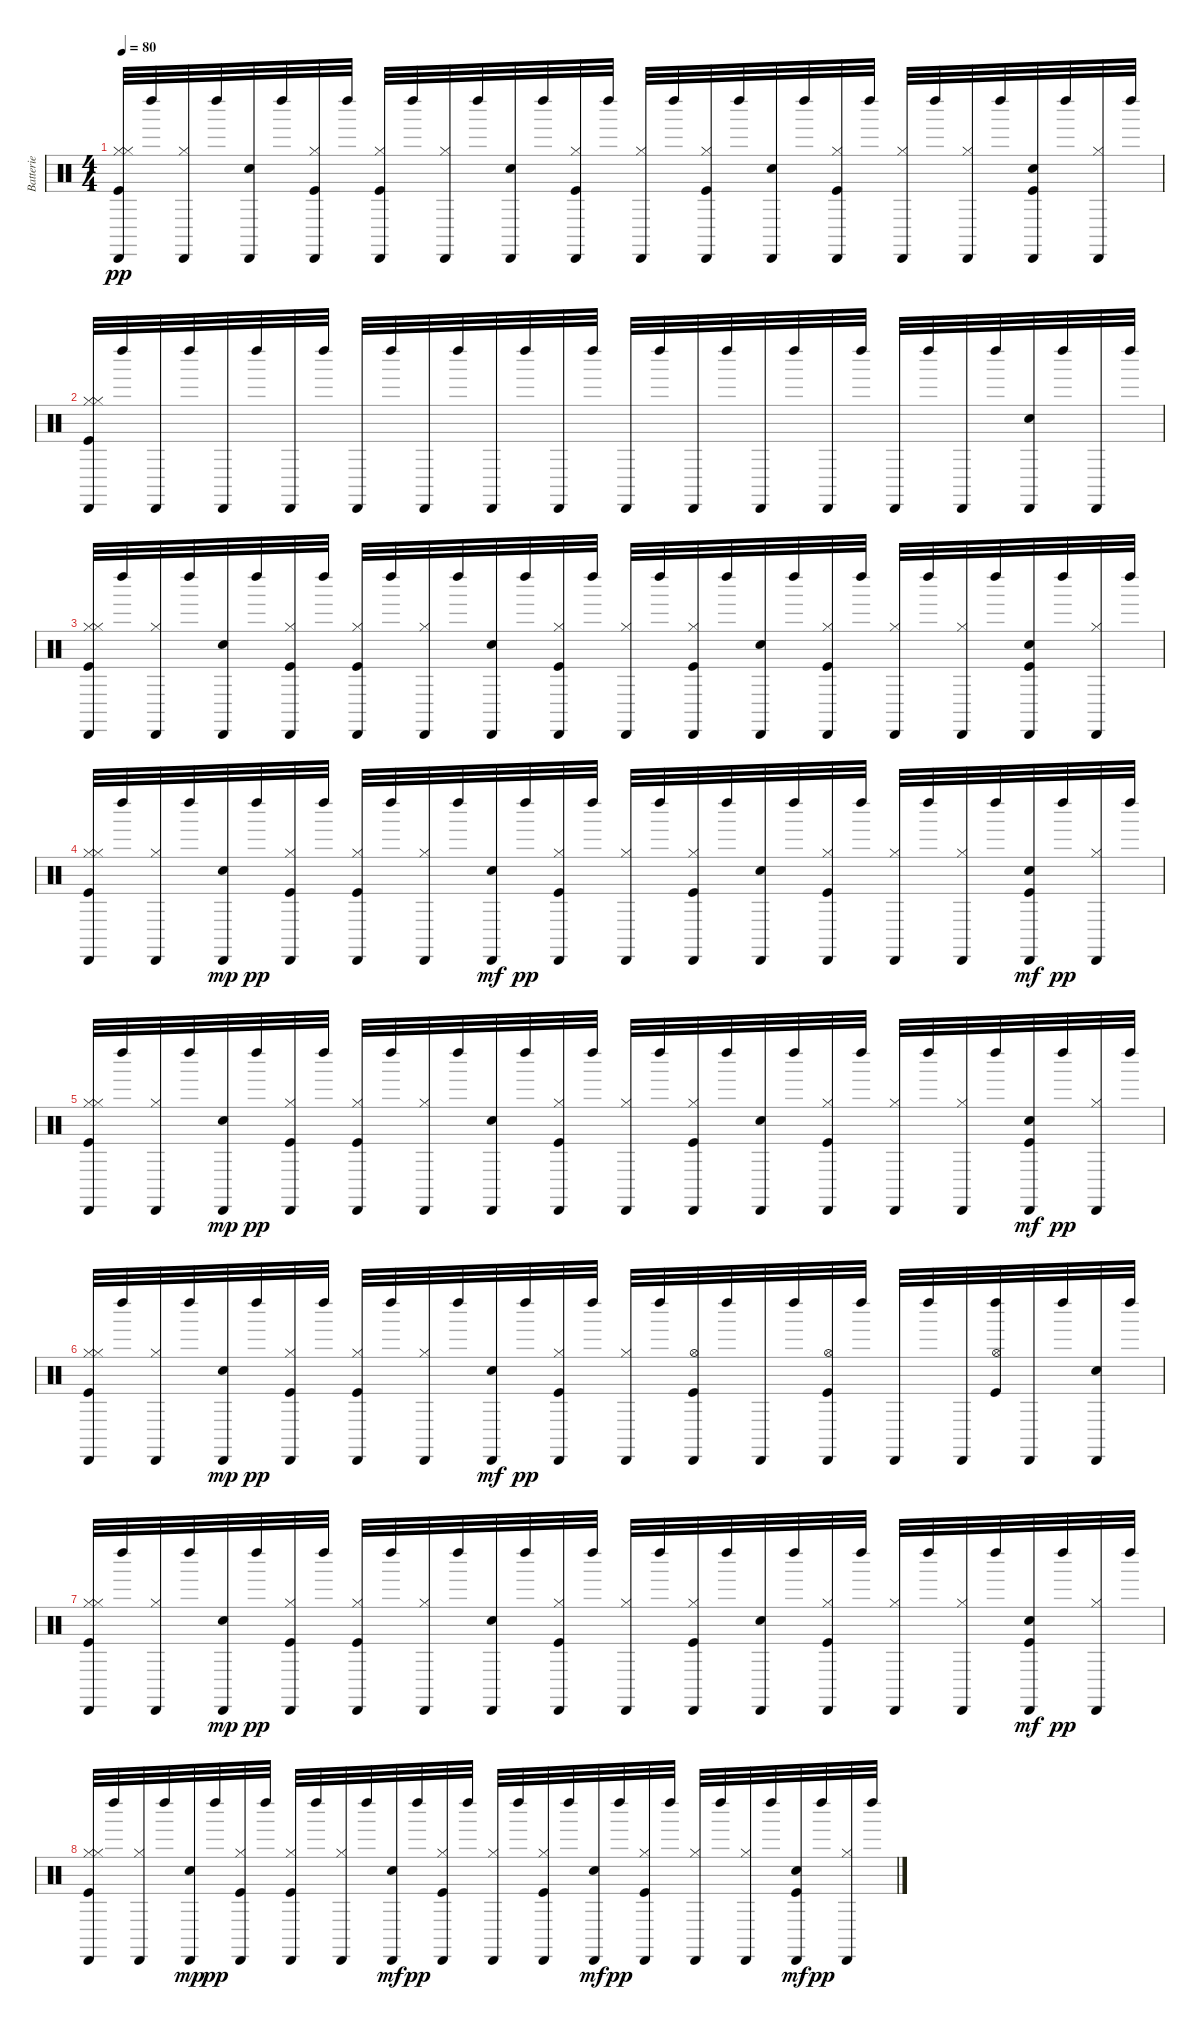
\track ("Batterie" "Batterie") {instrument percussion}
\staff {score}
\articulation defaults
\ts (4 4)
\tempo 80
\clef neutral
\ks c
("Hi-Hat (closed)" "Cabasa (hit)" "Hi-Hat (closed)" "Kick (hit)").32{dy pp} "Left Maraca (hit)".32 ("Hi-Hat (closed)" "Cabasa (hit)").32 "Left Maraca (hit)".32 ("Electric Snare (hit)" "Cabasa (hit)").32 "Left Maraca (hit)".32 ("Cabasa (hit)" "Kick (hit)" "Hi-Hat (closed)").32 "Left Maraca (hit)".32 ("Kick (hit)" "Cabasa (hit)" "Hi-Hat (closed)").32 "Left Maraca (hit)".32 ("Cabasa (hit)" "Hi-Hat (closed)").32 "Left Maraca (hit)".32 ("Electric Snare (hit)" "Cabasa (hit)").32 "Left Maraca (hit)".32 ("Hi-Hat (closed)" "Kick (hit)" "Cabasa (hit)").32 "Left Maraca (hit)".32 ("Cabasa (hit)" "Hi-Hat (closed)").32 "Left Maraca (hit)".32 ("Cabasa (hit)" "Kick (hit)" "Hi-Hat (closed)").32 "Left Maraca (hit)".32 ("Electric Snare (hit)" "Cabasa (hit)").32 "Left Maraca (hit)".32 ("Hi-Hat (closed)" "Kick (hit)" "Cabasa (hit)").32 "Left Maraca (hit)".32 ("Hi-Hat (closed)" "Cabasa (hit)").32 "Left Maraca (hit)".32 ("Hi-Hat (closed)" "Cabasa (hit)").32 "Left Maraca (hit)".32 ("Kick (hit)" "Electric Snare (hit)" "Cabasa (hit)").32 "Left Maraca (hit)".32 ("Hi-Hat (closed)" "Cabasa (hit)").32 "Left Maraca (hit)".32 |
("Kick (hit)" "Hi-Hat (closed)" "Hi-Hat (closed)" "Cabasa (hit)").32 "Left Maraca (hit)".32 "Cabasa (hit)".32 "Left Maraca (hit)".32 "Cabasa (hit)".32 "Left Maraca (hit)".32 "Cabasa (hit)".32 "Left Maraca (hit)".32 "Cabasa (hit)".32 "Left Maraca (hit)".32 "Cabasa (hit)".32 "Left Maraca (hit)".32 "Cabasa (hit)".32 "Left Maraca (hit)".32 "Cabasa (hit)".32 "Left Maraca (hit)".32 "Cabasa (hit)".32 "Left Maraca (hit)".32 "Cabasa (hit)".32 "Left Maraca (hit)".32 "Cabasa (hit)".32 "Left Maraca (hit)".32 "Cabasa (hit)".32 "Left Maraca (hit)".32 "Cabasa (hit)".32 "Left Maraca (hit)".32 "Cabasa (hit)".32 "Left Maraca (hit)".32 ("Cabasa (hit)" "Electric Snare (hit)").32 "Left Maraca (hit)".32 "Cabasa (hit)".32 "Left Maraca (hit)".32 |
("Cabasa (hit)" "Hi-Hat (closed)" "Hi-Hat (closed)" "Kick (hit)").32 "Left Maraca (hit)".32 ("Cabasa (hit)" "Hi-Hat (closed)").32 "Left Maraca (hit)".32 ("Electric Snare (hit)" "Cabasa (hit)").32 "Left Maraca (hit)".32 ("Cabasa (hit)" "Kick (hit)" "Hi-Hat (closed)").32 "Left Maraca (hit)".32 ("Hi-Hat (closed)" "Kick (hit)" "Cabasa (hit)").32 "Left Maraca (hit)".32 ("Hi-Hat (closed)" "Cabasa (hit)").32 "Left Maraca (hit)".32 ("Electric Snare (hit)" "Cabasa (hit)").32 "Left Maraca (hit)".32 ("Cabasa (hit)" "Kick (hit)" "Hi-Hat (closed)").32 "Left Maraca (hit)".32 ("Hi-Hat (closed)" "Cabasa (hit)").32 "Left Maraca (hit)".32 ("Hi-Hat (closed)" "Kick (hit)" "Cabasa (hit)").32 "Left Maraca (hit)".32 ("Electric Snare (hit)" "Cabasa (hit)").32 "Left Maraca (hit)".32 ("Kick (hit)" "Hi-Hat (closed)" "Cabasa (hit)").32 "Left Maraca (hit)".32 ("Hi-Hat (closed)" "Cabasa (hit)").32 "Left Maraca (hit)".32 ("Hi-Hat (closed)" "Cabasa (hit)").32 "Left Maraca (hit)".32 ("Kick (hit)" "Electric Snare (hit)" "Cabasa (hit)").32 "Left Maraca (hit)".32 ("Cabasa (hit)" "Hi-Hat (closed)").32 "Left Maraca (hit)".32 |
("Hi-Hat (closed)" "Kick (hit)" "Cabasa (hit)" "Hi-Hat (closed)").32 "Left Maraca (hit)".32 ("Hi-Hat (closed)" "Cabasa (hit)").32 "Left Maraca (hit)".32 ("Cabasa (hit)" "Electric Snare (hit)").32{dy mp} "Left Maraca (hit)".32{dy pp} ("Cabasa (hit)" "Hi-Hat (closed)" "Kick (hit)").32 "Left Maraca (hit)".32 ("Cabasa (hit)" "Hi-Hat (closed)" "Kick (hit)").32 "Left Maraca (hit)".32 ("Cabasa (hit)" "Hi-Hat (closed)").32 "Left Maraca (hit)".32 ("Cabasa (hit)" "Electric Snare (hit)").32{dy mf} "Left Maraca (hit)".32{dy pp} ("Hi-Hat (closed)" "Kick (hit)" "Cabasa (hit)").32 "Left Maraca (hit)".32 ("Hi-Hat (closed)" "Cabasa (hit)").32 "Left Maraca (hit)".32 ("Kick (hit)" "Hi-Hat (closed)" "Cabasa (hit)").32 "Left Maraca (hit)".32 ("Electric Snare (hit)" "Cabasa (hit)").32 "Left Maraca (hit)".32 ("Hi-Hat (closed)" "Kick (hit)" "Cabasa (hit)").32 "Left Maraca (hit)".32 ("Cabasa (hit)" "Hi-Hat (closed)").32 "Left Maraca (hit)".32 ("Hi-Hat (closed)" "Cabasa (hit)").32 "Left Maraca (hit)".32 ("Cabasa (hit)" "Electric Snare (hit)" "Kick (hit)").32{dy mf} "Left Maraca (hit)".32{dy pp} ("Cabasa (hit)" "Hi-Hat (closed)").32 "Left Maraca (hit)".32 |
("Kick (hit)" "Hi-Hat (closed)" "Cabasa (hit)" "Hi-Hat (closed)").32 "Left Maraca (hit)".32 ("Hi-Hat (closed)" "Cabasa (hit)").32 "Left Maraca (hit)".32 ("Cabasa (hit)" "Electric Snare (hit)").32{dy mp} "Left Maraca (hit)".32{dy pp} ("Hi-Hat (closed)" "Cabasa (hit)" "Kick (hit)").32 "Left Maraca (hit)".32 ("Cabasa (hit)" "Kick (hit)" "Hi-Hat (closed)").32 "Left Maraca (hit)".32 ("Hi-Hat (closed)" "Cabasa (hit)").32 "Left Maraca (hit)".32 ("Electric Snare (hit)" "Cabasa (hit)").32 "Left Maraca (hit)".32 ("Cabasa (hit)" "Hi-Hat (closed)" "Kick (hit)").32 "Left Maraca (hit)".32 ("Hi-Hat (closed)" "Cabasa (hit)").32 "Left Maraca (hit)".32 ("Kick (hit)" "Hi-Hat (closed)" "Cabasa (hit)").32 "Left Maraca (hit)".32 ("Electric Snare (hit)" "Cabasa (hit)").32 "Left Maraca (hit)".32 ("Kick (hit)" "Hi-Hat (closed)" "Cabasa (hit)").32 "Left Maraca (hit)".32 ("Cabasa (hit)" "Hi-Hat (closed)").32 "Left Maraca (hit)".32 ("Hi-Hat (closed)" "Cabasa (hit)").32 "Left Maraca (hit)".32 ("Cabasa (hit)" "Electric Snare (hit)" "Kick (hit)").32{dy mf} "Left Maraca (hit)".32{dy pp} ("Cabasa (hit)" "Hi-Hat (closed)").32 "Left Maraca (hit)".32 |
("Hi-Hat (closed)" "Kick (hit)" "Cabasa (hit)" "Hi-Hat (closed)").32 "Left Maraca (hit)".32 ("Hi-Hat (closed)" "Cabasa (hit)").32 "Left Maraca (hit)".32 ("Cabasa (hit)" "Electric Snare (hit)").32{dy mp} "Left Maraca (hit)".32{dy pp} ("Hi-Hat (closed)" "Cabasa (hit)" "Kick (hit)").32 "Left Maraca (hit)".32 ("Hi-Hat (closed)" "Cabasa (hit)" "Kick (hit)").32 "Left Maraca (hit)".32 ("Hi-Hat (closed)" "Cabasa (hit)").32 "Left Maraca (hit)".32 ("Cabasa (hit)" "Electric Snare (hit)").32{dy mf} "Left Maraca (hit)".32{dy pp} ("Cabasa (hit)" "Kick (hit)" "Hi-Hat (closed)").32 "Left Maraca (hit)".32 ("Hi-Hat (closed)" "Cabasa (hit)").32 "Left Maraca (hit)".32 ("Hi-Hat (open)" "Cabasa (hit)" "Kick (hit)").32 "Left Maraca (hit)".32 "Cabasa (hit)".32 "Left Maraca (hit)".32 ("Hi-Hat (open)" "Cabasa (hit)" "Kick (hit)").32 "Left Maraca (hit)".32 "Cabasa (hit)".32 "Left Maraca (hit)".32 "Cabasa (hit)".32 ("Hi-Hat (open)" "Left Maraca (hit)" "Kick (hit)").32 "Cabasa (hit)".32 "Left Maraca (hit)".32 ("Electric Snare (hit)" "Cabasa (hit)").32 "Left Maraca (hit)".32 |
("Hi-Hat (closed)" "Kick (hit)" "Cabasa (hit)" "Hi-Hat (closed)").32 "Left Maraca (hit)".32 ("Hi-Hat (closed)" "Cabasa (hit)").32 "Left Maraca (hit)".32 ("Cabasa (hit)" "Electric Snare (hit)").32{dy mp} "Left Maraca (hit)".32{dy pp} ("Kick (hit)" "Cabasa (hit)" "Hi-Hat (closed)").32 "Left Maraca (hit)".32 ("Hi-Hat (closed)" "Kick (hit)" "Cabasa (hit)").32 "Left Maraca (hit)".32 ("Hi-Hat (closed)" "Cabasa (hit)").32 "Left Maraca (hit)".32 ("Electric Snare (hit)" "Cabasa (hit)").32 "Left Maraca (hit)".32 ("Hi-Hat (closed)" "Cabasa (hit)" "Kick (hit)").32 "Left Maraca (hit)".32 ("Hi-Hat (closed)" "Cabasa (hit)").32 "Left Maraca (hit)".32 ("Kick (hit)" "Cabasa (hit)" "Hi-Hat (closed)").32 "Left Maraca (hit)".32 ("Electric Snare (hit)" "Cabasa (hit)").32 "Left Maraca (hit)".32 ("Cabasa (hit)" "Kick (hit)" "Hi-Hat (closed)").32 "Left Maraca (hit)".32 ("Hi-Hat (closed)" "Cabasa (hit)").32 "Left Maraca (hit)".32 ("Hi-Hat (closed)" "Cabasa (hit)").32 "Left Maraca (hit)".32 ("Kick (hit)" "Cabasa (hit)" "Electric Snare (hit)").32{dy mf} "Left Maraca (hit)".32{dy pp} ("Hi-Hat (closed)" "Cabasa (hit)").32 "Left Maraca (hit)".32 |
("Cabasa (hit)" "Hi-Hat (closed)" "Kick (hit)" "Hi-Hat (closed)").32 "Left Maraca (hit)".32 ("Cabasa (hit)" "Hi-Hat (closed)").32 "Left Maraca (hit)".32 ("Cabasa (hit)" "Electric Snare (hit)").32{dy mp} "Left Maraca (hit)".32{dy pp} ("Hi-Hat (closed)" "Cabasa (hit)" "Kick (hit)").32 "Left Maraca (hit)".32 ("Kick (hit)" "Hi-Hat (closed)" "Cabasa (hit)").32 "Left Maraca (hit)".32 ("Hi-Hat (closed)" "Cabasa (hit)").32 "Left Maraca (hit)".32 ("Cabasa (hit)" "Electric Snare (hit)").32{dy mf} "Left Maraca (hit)".32{dy pp} ("Cabasa (hit)" "Kick (hit)" "Hi-Hat (closed)").32 "Left Maraca (hit)".32 ("Cabasa (hit)" "Hi-Hat (closed)").32 "Left Maraca (hit)".32 ("Cabasa (hit)" "Hi-Hat (closed)" "Kick (hit)").32 "Left Maraca (hit)".32 ("Cabasa (hit)" "Electric Snare (hit)").32{dy mf} "Left Maraca (hit)".32{dy pp} ("Kick (hit)" "Hi-Hat (closed)" "Cabasa (hit)").32 "Left Maraca (hit)".32 ("Hi-Hat (closed)" "Cabasa (hit)").32 "Left Maraca (hit)".32 ("Hi-Hat (closed)" "Cabasa (hit)").32 "Left Maraca (hit)".32 ("Cabasa (hit)" "Kick (hit)" "Electric Snare (hit)").32{dy mf} "Left Maraca (hit)".32{dy pp} ("Hi-Hat (closed)" "Cabasa (hit)").32 "Left Maraca (hit)".32
